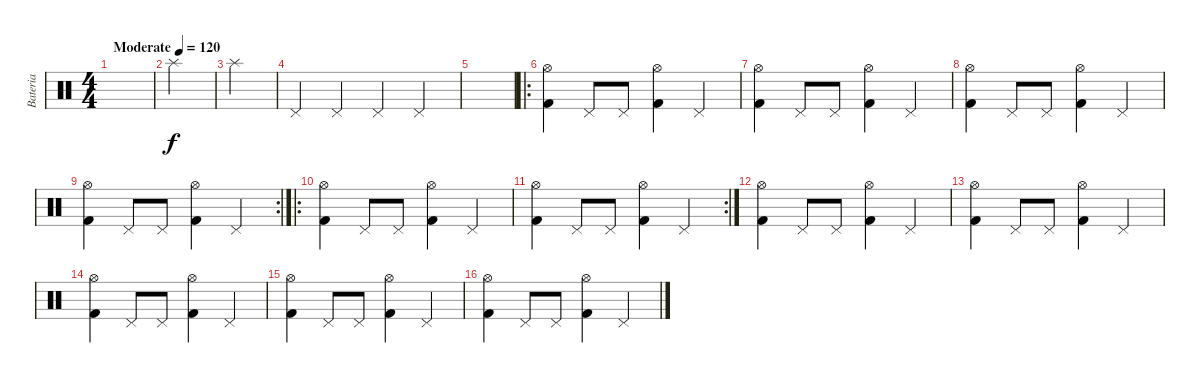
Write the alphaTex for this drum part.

\track ("Bateria" "Bateria") {instrument percussion}
\staff {score}
\articulation defaults
\ts (4 4)
\tempo (120 "Moderate")
\clef neutral
\ks c
|
"Splash (hit)".4 |
"Splash (hit)".4 |
"Pedal Hi-Hat (hit)".4 "Pedal Hi-Hat (hit)".4 "Pedal Hi-Hat (hit)".4 "Pedal Hi-Hat (hit)".4 |
|
\ro
("Hi-Hat (open)" "Kick (hit) 2").4 "Pedal Hi-Hat (hit)".8 "Pedal Hi-Hat (hit)".8 ("Hi-Hat (open)" "Kick (hit) 2").4 "Pedal Hi-Hat (hit)".4 |
("Hi-Hat (open)" "Kick (hit) 2").4 "Pedal Hi-Hat (hit)".8 "Pedal Hi-Hat (hit)".8 ("Hi-Hat (open)" "Kick (hit) 2").4 "Pedal Hi-Hat (hit)".4 |
("Hi-Hat (open)" "Kick (hit) 2").4 "Pedal Hi-Hat (hit)".8 "Pedal Hi-Hat (hit)".8 ("Hi-Hat (open)" "Kick (hit) 2").4 "Pedal Hi-Hat (hit)".4 |
\rc 2
("Hi-Hat (open)" "Kick (hit) 2").4 "Pedal Hi-Hat (hit)".8 "Pedal Hi-Hat (hit)".8 ("Hi-Hat (open)" "Kick (hit) 2").4 "Pedal Hi-Hat (hit)".4 |
\ro
("Hi-Hat (open)" "Kick (hit) 2").4 "Pedal Hi-Hat (hit)".8 "Pedal Hi-Hat (hit)".8 ("Hi-Hat (open)" "Kick (hit) 2").4 "Pedal Hi-Hat (hit)".4 |
\rc 2
("Hi-Hat (open)" "Kick (hit) 2").4 "Pedal Hi-Hat (hit)".8 "Pedal Hi-Hat (hit)".8 ("Hi-Hat (open)" "Kick (hit) 2").4 "Pedal Hi-Hat (hit)".4 |
("Hi-Hat (open)" "Kick (hit) 2").4 "Pedal Hi-Hat (hit)".8 "Pedal Hi-Hat (hit)".8 ("Hi-Hat (open)" "Kick (hit) 2").4 "Pedal Hi-Hat (hit)".4 |
("Hi-Hat (open)" "Kick (hit) 2").4 "Pedal Hi-Hat (hit)".8 "Pedal Hi-Hat (hit)".8 ("Hi-Hat (open)" "Kick (hit) 2").4 "Pedal Hi-Hat (hit)".4 |
("Hi-Hat (open)" "Kick (hit) 2").4 "Pedal Hi-Hat (hit)".8 "Pedal Hi-Hat (hit)".8 ("Hi-Hat (open)" "Kick (hit) 2").4 "Pedal Hi-Hat (hit)".4 |
("Hi-Hat (open)" "Kick (hit) 2").4 "Pedal Hi-Hat (hit)".8 "Pedal Hi-Hat (hit)".8 ("Hi-Hat (open)" "Kick (hit) 2").4 "Pedal Hi-Hat (hit)".4 |
("Hi-Hat (open)" "Kick (hit) 2").4 "Pedal Hi-Hat (hit)".8 "Pedal Hi-Hat (hit)".8 ("Hi-Hat (open)" "Kick (hit) 2").4 "Pedal Hi-Hat (hit)".4
